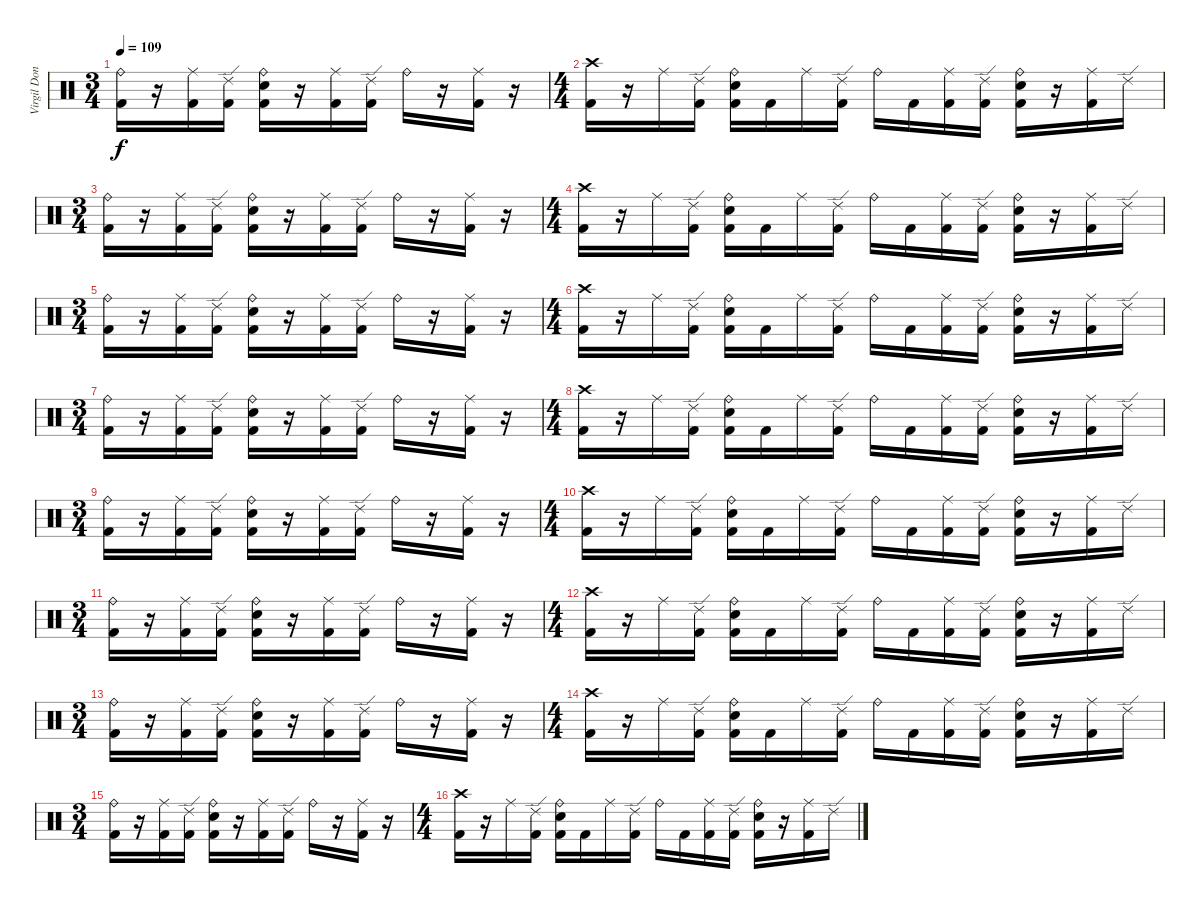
\track ("Virgil Donati" "Virgil Don") {instrument percussion}
\staff {score}
\articulation defaults
\ts (3 4)
\tempo 109
\clef neutral
\ks c
("Ride (bell)" "Kick (hit) 2").16{dy f} r.16 ("Ride (middle)" "Kick (hit) 2").16 ("Ride (edge) 2" "Kick (hit) 2").16 ("Ride (bell)" "Electric Snare (hit)" "Kick (hit) 2").16 r.16 ("Ride (middle)" "Kick (hit) 2").16 ("Ride (edge) 2" "Kick (hit) 2").16 "Ride (bell)".16 r.16 ("Ride (middle)" "Kick (hit) 2").16 r.16 |
\ts (4 4)
("Crash high (hit)" "Kick (hit) 2").16 r.16 "Ride (middle)".16 ("Ride (edge) 2" "Kick (hit) 2").16 ("Ride (bell)" "Electric Snare (hit)" "Kick (hit) 2").16 "Kick (hit) 2".16 "Ride (middle)".16 ("Ride (edge) 2" "Kick (hit) 2").16 "Ride (bell)".16 "Kick (hit) 2".16 ("Ride (middle)" "Kick (hit) 2").16 ("Ride (edge) 2" "Kick (hit) 2").16 ("Ride (bell)" "Electric Snare (hit)" "Kick (hit) 2").16 r.16 ("Ride (middle)" "Kick (hit) 2").16 "Ride (edge) 2".16 |
\ts (3 4)
("Ride (bell)" "Kick (hit) 2").16 r.16 ("Ride (middle)" "Kick (hit) 2").16 ("Ride (edge) 2" "Kick (hit) 2").16 ("Ride (bell)" "Electric Snare (hit)" "Kick (hit) 2").16 r.16 ("Ride (middle)" "Kick (hit) 2").16 ("Ride (edge) 2" "Kick (hit) 2").16 "Ride (bell)".16 r.16 ("Ride (middle)" "Kick (hit) 2").16 r.16 |
\ts (4 4)
("Crash high (hit)" "Kick (hit) 2").16 r.16 "Ride (middle)".16 ("Ride (edge) 2" "Kick (hit) 2").16 ("Ride (bell)" "Electric Snare (hit)" "Kick (hit) 2").16 "Kick (hit) 2".16 "Ride (middle)".16 ("Ride (edge) 2" "Kick (hit) 2").16 "Ride (bell)".16 "Kick (hit) 2".16 ("Ride (middle)" "Kick (hit) 2").16 ("Ride (edge) 2" "Kick (hit) 2").16 ("Ride (bell)" "Electric Snare (hit)" "Kick (hit) 2").16 r.16 ("Ride (middle)" "Kick (hit) 2").16 "Ride (edge) 2".16 |
\ts (3 4)
("Ride (bell)" "Kick (hit) 2").16 r.16 ("Ride (middle)" "Kick (hit) 2").16 ("Ride (edge) 2" "Kick (hit) 2").16 ("Ride (bell)" "Electric Snare (hit)" "Kick (hit) 2").16 r.16 ("Ride (middle)" "Kick (hit) 2").16 ("Ride (edge) 2" "Kick (hit) 2").16 "Ride (bell)".16 r.16 ("Ride (middle)" "Kick (hit) 2").16 r.16 |
\ts (4 4)
("Crash high (hit)" "Kick (hit) 2").16 r.16 "Ride (middle)".16 ("Ride (edge) 2" "Kick (hit) 2").16 ("Ride (bell)" "Electric Snare (hit)" "Kick (hit) 2").16 "Kick (hit) 2".16 "Ride (middle)".16 ("Ride (edge) 2" "Kick (hit) 2").16 "Ride (bell)".16 "Kick (hit) 2".16 ("Ride (middle)" "Kick (hit) 2").16 ("Ride (edge) 2" "Kick (hit) 2").16 ("Ride (bell)" "Electric Snare (hit)" "Kick (hit) 2").16 r.16 ("Ride (middle)" "Kick (hit) 2").16 "Ride (edge) 2".16 |
\ts (3 4)
("Ride (bell)" "Kick (hit) 2").16 r.16 ("Ride (middle)" "Kick (hit) 2").16 ("Ride (edge) 2" "Kick (hit) 2").16 ("Ride (bell)" "Electric Snare (hit)" "Kick (hit) 2").16 r.16 ("Ride (middle)" "Kick (hit) 2").16 ("Ride (edge) 2" "Kick (hit) 2").16 "Ride (bell)".16 r.16 ("Ride (middle)" "Kick (hit) 2").16 r.16 |
\ts (4 4)
("Crash high (hit)" "Kick (hit) 2").16 r.16 "Ride (middle)".16 ("Ride (edge) 2" "Kick (hit) 2").16 ("Ride (bell)" "Electric Snare (hit)" "Kick (hit) 2").16 "Kick (hit) 2".16 "Ride (middle)".16 ("Ride (edge) 2" "Kick (hit) 2").16 "Ride (bell)".16 "Kick (hit) 2".16 ("Ride (middle)" "Kick (hit) 2").16 ("Ride (edge) 2" "Kick (hit) 2").16 ("Ride (bell)" "Electric Snare (hit)" "Kick (hit) 2").16 r.16 ("Ride (middle)" "Kick (hit) 2").16 "Ride (edge) 2".16 |
\ts (3 4)
("Ride (bell)" "Kick (hit) 2").16 r.16 ("Ride (middle)" "Kick (hit) 2").16 ("Ride (edge) 2" "Kick (hit) 2").16 ("Ride (bell)" "Electric Snare (hit)" "Kick (hit) 2").16 r.16 ("Ride (middle)" "Kick (hit) 2").16 ("Ride (edge) 2" "Kick (hit) 2").16 "Ride (bell)".16 r.16 ("Ride (middle)" "Kick (hit) 2").16 r.16 |
\ts (4 4)
("Crash high (hit)" "Kick (hit) 2").16 r.16 "Ride (middle)".16 ("Ride (edge) 2" "Kick (hit) 2").16 ("Ride (bell)" "Electric Snare (hit)" "Kick (hit) 2").16 "Kick (hit) 2".16 "Ride (middle)".16 ("Ride (edge) 2" "Kick (hit) 2").16 "Ride (bell)".16 "Kick (hit) 2".16 ("Ride (middle)" "Kick (hit) 2").16 ("Ride (edge) 2" "Kick (hit) 2").16 ("Ride (bell)" "Electric Snare (hit)" "Kick (hit) 2").16 r.16 ("Ride (middle)" "Kick (hit) 2").16 "Ride (edge) 2".16 |
\ts (3 4)
("Ride (bell)" "Kick (hit) 2").16 r.16 ("Ride (middle)" "Kick (hit) 2").16 ("Ride (edge) 2" "Kick (hit) 2").16 ("Ride (bell)" "Electric Snare (hit)" "Kick (hit) 2").16 r.16 ("Ride (middle)" "Kick (hit) 2").16 ("Ride (edge) 2" "Kick (hit) 2").16 "Ride (bell)".16 r.16 ("Ride (middle)" "Kick (hit) 2").16 r.16 |
\ts (4 4)
("Crash high (hit)" "Kick (hit) 2").16 r.16 "Ride (middle)".16 ("Ride (edge) 2" "Kick (hit) 2").16 ("Ride (bell)" "Electric Snare (hit)" "Kick (hit) 2").16 "Kick (hit) 2".16 "Ride (middle)".16 ("Ride (edge) 2" "Kick (hit) 2").16 "Ride (bell)".16 "Kick (hit) 2".16 ("Ride (middle)" "Kick (hit) 2").16 ("Ride (edge) 2" "Kick (hit) 2").16 ("Ride (bell)" "Electric Snare (hit)" "Kick (hit) 2").16 r.16 ("Ride (middle)" "Kick (hit) 2").16 "Ride (edge) 2".16 |
\ts (3 4)
("Ride (bell)" "Kick (hit) 2").16 r.16 ("Ride (middle)" "Kick (hit) 2").16 ("Ride (edge) 2" "Kick (hit) 2").16 ("Ride (bell)" "Electric Snare (hit)" "Kick (hit) 2").16 r.16 ("Ride (middle)" "Kick (hit) 2").16 ("Ride (edge) 2" "Kick (hit) 2").16 "Ride (bell)".16 r.16 ("Ride (middle)" "Kick (hit) 2").16 r.16 |
\ts (4 4)
("Crash high (hit)" "Kick (hit) 2").16 r.16 "Ride (middle)".16 ("Ride (edge) 2" "Kick (hit) 2").16 ("Ride (bell)" "Electric Snare (hit)" "Kick (hit) 2").16 "Kick (hit) 2".16 "Ride (middle)".16 ("Ride (edge) 2" "Kick (hit) 2").16 "Ride (bell)".16 "Kick (hit) 2".16 ("Ride (middle)" "Kick (hit) 2").16 ("Ride (edge) 2" "Kick (hit) 2").16 ("Ride (bell)" "Electric Snare (hit)" "Kick (hit) 2").16 r.16 ("Ride (middle)" "Kick (hit) 2").16 "Ride (edge) 2".16 |
\ts (3 4)
("Ride (bell)" "Kick (hit) 2").16 r.16 ("Ride (middle)" "Kick (hit) 2").16 ("Ride (edge) 2" "Kick (hit) 2").16 ("Ride (bell)" "Electric Snare (hit)" "Kick (hit) 2").16 r.16 ("Ride (middle)" "Kick (hit) 2").16 ("Ride (edge) 2" "Kick (hit) 2").16 "Ride (bell)".16 r.16 ("Ride (middle)" "Kick (hit) 2").16 r.16 |
\ts (4 4)
("Crash high (hit)" "Kick (hit) 2").16 r.16 "Ride (middle)".16 ("Ride (edge) 2" "Kick (hit) 2").16 ("Ride (bell)" "Electric Snare (hit)" "Kick (hit) 2").16 "Kick (hit) 2".16 "Ride (middle)".16 ("Ride (edge) 2" "Kick (hit) 2").16 "Ride (bell)".16 "Kick (hit) 2".16 ("Ride (middle)" "Kick (hit) 2").16 ("Ride (edge) 2" "Kick (hit) 2").16 ("Ride (bell)" "Electric Snare (hit)" "Kick (hit) 2").16 r.16 ("Ride (middle)" "Kick (hit) 2").16 "Ride (edge) 2".16
